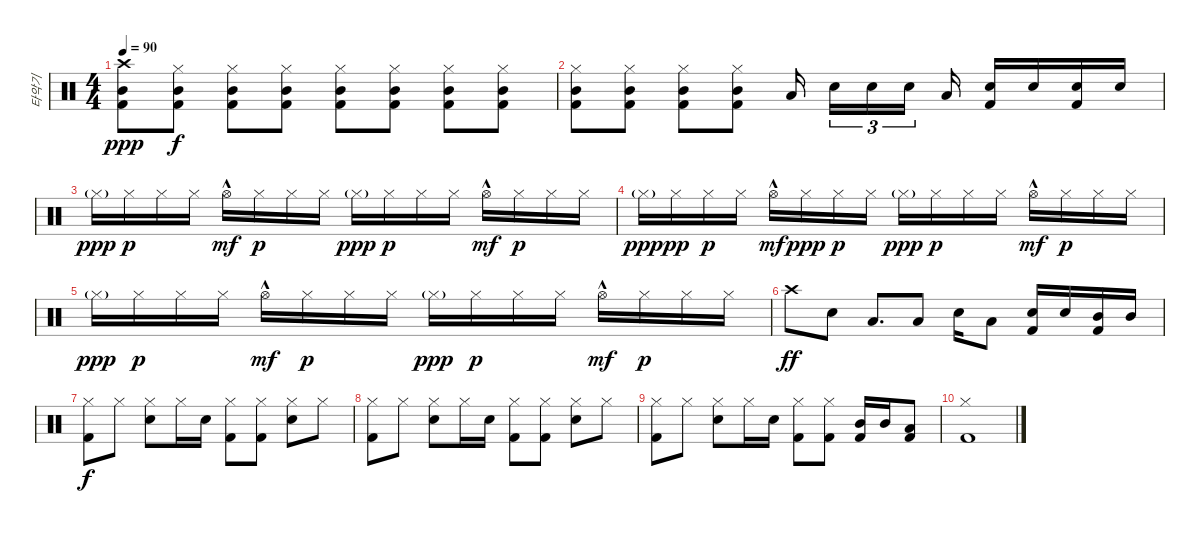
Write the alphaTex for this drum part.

\track ("타악기" "타악기") {instrument percussion}
\staff {score}
\articulation defaults
\ts (4 4)
\tempo 90
\clef neutral
\ks c
("Crash high (hit)" "Kick (hit) 2" "Mid Tom (hit)").8{dy ppp} ("Hi-Hat (closed)" "Kick (hit) 2" "Mid Tom (hit)").8{dy f} ("Hi-Hat (closed)" "Kick (hit) 2" "Mid Tom (hit)").8 ("Hi-Hat (closed)" "Kick (hit) 2" "Mid Tom (hit)").8 ("Hi-Hat (closed)" "Kick (hit) 2" "Mid Tom (hit)").8 ("Hi-Hat (closed)" "Kick (hit) 2" "Mid Tom (hit)").8 ("Hi-Hat (closed)" "Kick (hit) 2" "Mid Tom (hit)").8 ("Hi-Hat (closed)" "Kick (hit) 2" "Mid Tom (hit)").8 |
("Hi-Hat (closed)" "Kick (hit) 2" "Mid Tom (hit)").8 ("Hi-Hat (closed)" "Kick (hit) 2" "Mid Tom (hit)").8 ("Hi-Hat (closed)" "Kick (hit) 2" "Mid Tom (hit)").8 ("Hi-Hat (closed)" "Kick (hit) 2" "Mid Tom (hit)").8 "Low Floor Tom (hit)".16{beam splitsecondary} "Electric Snare (hit)".16{tu (3 2)} "Electric Snare (hit)".16{tu (3 2)} "Electric Snare (hit)".16{tu (3 2) beam splitsecondary} "Low Floor Tom (hit)".16 ("Electric Snare (hit)" "Kick (hit) 2").16 "Electric Snare (hit)".16 ("Electric Snare (hit)" "Kick (hit) 2").16 "Electric Snare (hit)".16 |
"Hi-Hat (closed)"{g}.16{dy ppp} "Hi-Hat (closed)".16{dy p} "Hi-Hat (closed)".16 "Hi-Hat (closed)".16 "Hi-Hat (open)"{hac}.16{dy mf} "Hi-Hat (closed)".16{dy p} "Hi-Hat (closed)".16 "Hi-Hat (closed)".16 "Hi-Hat (closed)"{g}.16{dy ppp} "Hi-Hat (closed)".16{dy p} "Hi-Hat (closed)".16 "Hi-Hat (closed)".16 "Hi-Hat (open)"{hac}.16{dy mf} "Hi-Hat (closed)".16{dy p} "Hi-Hat (closed)".16 "Hi-Hat (closed)".16 |
"Hi-Hat (closed)"{g}.16{dy ppp} "Hi-Hat (closed)".16{dy pp} "Hi-Hat (closed)".16{dy p} "Hi-Hat (closed)".16 "Hi-Hat (open)"{hac}.16{dy mf} "Hi-Hat (closed)".16{dy ppp} "Hi-Hat (closed)".16{dy p} "Hi-Hat (closed)".16 "Hi-Hat (closed)"{g}.16{dy ppp} "Hi-Hat (closed)".16{dy p} "Hi-Hat (closed)".16 "Hi-Hat (closed)".16 "Hi-Hat (open)"{hac}.16{dy mf} "Hi-Hat (closed)".16{dy p} "Hi-Hat (closed)".16 "Hi-Hat (closed)".16 |
"Hi-Hat (closed)"{g}.16{dy ppp} "Hi-Hat (closed)".16{dy p} "Hi-Hat (closed)".16 "Hi-Hat (closed)".16 "Hi-Hat (open)"{hac}.16{dy mf} "Hi-Hat (closed)".16{dy p} "Hi-Hat (closed)".16 "Hi-Hat (closed)".16 "Hi-Hat (closed)"{g}.16{dy ppp} "Hi-Hat (closed)".16{dy p} "Hi-Hat (closed)".16 "Hi-Hat (closed)".16 "Hi-Hat (open)"{hac}.16{dy mf} "Hi-Hat (closed)".16{dy p} "Hi-Hat (closed)".16 "Hi-Hat (closed)".16 |
"Crash high (hit)".8{dy ff} "Electric Snare (hit)".8 "Low Floor Tom (hit)".8{d} "Low Floor Tom (hit)".8 "Electric Snare (hit)".16 "Low Floor Tom (hit)".8 ("Electric Snare (hit)" "Kick (hit) 2").16 "Electric Snare (hit)".16 ("Mid Tom (hit)" "Kick (hit) 2").16 "Mid Tom (hit)".16 |
("Hi-Hat (closed)" "Kick (hit) 2").8{dy f} "Hi-Hat (closed)".8 ("Hi-Hat (closed)" "Electric Snare (hit)").8 "Hi-Hat (closed)".16 "Electric Snare (hit)".16 ("Hi-Hat (closed)" "Kick (hit) 2").8 ("Hi-Hat (closed)" "Kick (hit) 2").8 ("Hi-Hat (closed)" "Electric Snare (hit)").8 "Hi-Hat (closed)".8 |
("Hi-Hat (closed)" "Kick (hit) 2").8 "Hi-Hat (closed)".8 ("Hi-Hat (closed)" "Electric Snare (hit)").8 "Hi-Hat (closed)".16 "Electric Snare (hit)".16 ("Hi-Hat (closed)" "Kick (hit) 2").8 ("Hi-Hat (closed)" "Kick (hit) 2").8 ("Hi-Hat (closed)" "Electric Snare (hit)").8 "Hi-Hat (closed)".8 |
("Hi-Hat (closed)" "Kick (hit) 2").8 "Hi-Hat (closed)".8 ("Hi-Hat (closed)" "Electric Snare (hit)").8 "Hi-Hat (closed)".16 "Electric Snare (hit)".16 ("Hi-Hat (closed)" "Kick (hit) 2").8 ("Hi-Hat (closed)" "Kick (hit) 2").8 ("Mid Tom (hit)" "Kick (hit) 2").16 "Mid Tom (hit)".16 ("Low Floor Tom (hit)" "Kick (hit) 2").8 |
("Hi-Hat (closed)" "Kick (hit) 2").1
